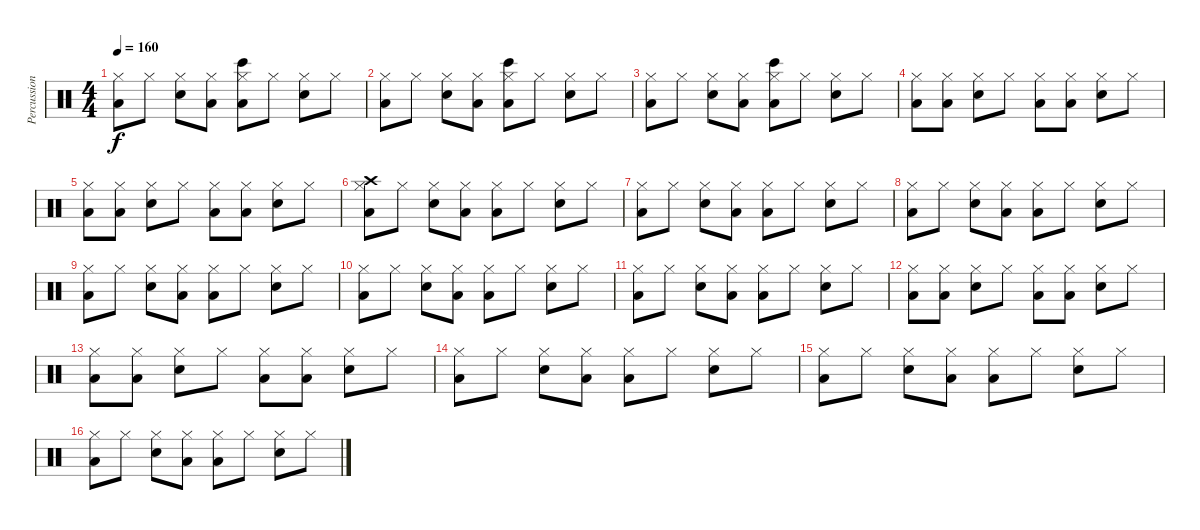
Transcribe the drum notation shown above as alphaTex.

\track ("Percussions" "Percussion") {instrument percussion}
\staff {score}
\articulation defaults
\ts (4 4)
\tempo 160
\clef neutral
\ks c
("Low Floor Tom (hit)" "Hi-Hat (closed)").8{dy f} "Hi-Hat (closed)".8 ("Electric Snare (hit)" "Hi-Hat (closed)").8 ("Low Floor Tom (hit)" "Hi-Hat (closed)").8 ("Low Floor Tom (hit)" "Bongo High (hit)" "Hi-Hat (closed)").8 "Hi-Hat (closed)".8 ("Electric Snare (hit)" "Hi-Hat (closed)").8 "Hi-Hat (closed)".8 |
("Low Floor Tom (hit)" "Hi-Hat (closed)").8 "Hi-Hat (closed)".8 ("Electric Snare (hit)" "Hi-Hat (closed)").8 ("Low Floor Tom (hit)" "Hi-Hat (closed)").8 ("Low Floor Tom (hit)" "Bongo High (hit)" "Hi-Hat (closed)").8 "Hi-Hat (closed)".8 ("Electric Snare (hit)" "Hi-Hat (closed)").8 "Hi-Hat (closed)".8 |
("Low Floor Tom (hit)" "Hi-Hat (closed)").8 "Hi-Hat (closed)".8 ("Electric Snare (hit)" "Hi-Hat (closed)").8 ("Low Floor Tom (hit)" "Hi-Hat (closed)").8 ("Low Floor Tom (hit)" "Bongo High (hit)" "Hi-Hat (closed)").8 "Hi-Hat (closed)".8 ("Electric Snare (hit)" "Hi-Hat (closed)").8 "Hi-Hat (closed)".8 |
("Low Floor Tom (hit)" "Hi-Hat (closed)").8 ("Low Floor Tom (hit)" "Hi-Hat (closed)").8 ("Electric Snare (hit)" "Hi-Hat (closed)").8 "Hi-Hat (closed)".8 ("Low Floor Tom (hit)" "Hi-Hat (closed)").8 ("Low Floor Tom (hit)" "Hi-Hat (closed)").8 ("Electric Snare (hit)" "Hi-Hat (closed)").8 "Hi-Hat (closed)".8 |
("Low Floor Tom (hit)" "Hi-Hat (closed)").8 ("Low Floor Tom (hit)" "Hi-Hat (closed)").8 ("Electric Snare (hit)" "Hi-Hat (closed)").8 "Hi-Hat (closed)".8 ("Low Floor Tom (hit)" "Hi-Hat (closed)").8 ("Low Floor Tom (hit)" "Hi-Hat (closed)").8 ("Electric Snare (hit)" "Hi-Hat (closed)").8 "Hi-Hat (closed)".8 |
("Low Floor Tom (hit)" "Hi-Hat (closed)" "Crash high (hit)").8 "Hi-Hat (closed)".8 ("Electric Snare (hit)" "Hi-Hat (closed)").8 ("Low Floor Tom (hit)" "Hi-Hat (closed)").8 ("Low Floor Tom (hit)" "Hi-Hat (closed)").8 "Hi-Hat (closed)".8 ("Electric Snare (hit)" "Hi-Hat (closed)").8 "Hi-Hat (closed)".8 |
("Low Floor Tom (hit)" "Hi-Hat (closed)").8 "Hi-Hat (closed)".8 ("Electric Snare (hit)" "Hi-Hat (closed)").8 ("Low Floor Tom (hit)" "Hi-Hat (closed)").8 ("Low Floor Tom (hit)" "Hi-Hat (closed)").8 "Hi-Hat (closed)".8 ("Electric Snare (hit)" "Hi-Hat (closed)").8 "Hi-Hat (closed)".8 |
("Low Floor Tom (hit)" "Hi-Hat (closed)").8 "Hi-Hat (closed)".8 ("Electric Snare (hit)" "Hi-Hat (closed)").8 ("Low Floor Tom (hit)" "Hi-Hat (closed)").8 ("Low Floor Tom (hit)" "Hi-Hat (closed)").8 "Hi-Hat (closed)".8 ("Electric Snare (hit)" "Hi-Hat (closed)").8 "Hi-Hat (closed)".8 |
("Low Floor Tom (hit)" "Hi-Hat (closed)").8 "Hi-Hat (closed)".8 ("Electric Snare (hit)" "Hi-Hat (closed)").8 ("Low Floor Tom (hit)" "Hi-Hat (closed)").8 ("Low Floor Tom (hit)" "Hi-Hat (closed)").8 "Hi-Hat (closed)".8 ("Electric Snare (hit)" "Hi-Hat (closed)").8 "Hi-Hat (closed)".8 |
("Low Floor Tom (hit)" "Hi-Hat (closed)").8 "Hi-Hat (closed)".8 ("Electric Snare (hit)" "Hi-Hat (closed)").8 ("Low Floor Tom (hit)" "Hi-Hat (closed)").8 ("Low Floor Tom (hit)" "Hi-Hat (closed)").8 "Hi-Hat (closed)".8 ("Electric Snare (hit)" "Hi-Hat (closed)").8 "Hi-Hat (closed)".8 |
("Low Floor Tom (hit)" "Hi-Hat (closed)").8 "Hi-Hat (closed)".8 ("Electric Snare (hit)" "Hi-Hat (closed)").8 ("Low Floor Tom (hit)" "Hi-Hat (closed)").8 ("Low Floor Tom (hit)" "Hi-Hat (closed)").8 "Hi-Hat (closed)".8 ("Electric Snare (hit)" "Hi-Hat (closed)").8 "Hi-Hat (closed)".8 |
("Low Floor Tom (hit)" "Hi-Hat (closed)").8 ("Low Floor Tom (hit)" "Hi-Hat (closed)").8 ("Electric Snare (hit)" "Hi-Hat (closed)").8 "Hi-Hat (closed)".8 ("Low Floor Tom (hit)" "Hi-Hat (closed)").8 ("Low Floor Tom (hit)" "Hi-Hat (closed)").8 ("Electric Snare (hit)" "Hi-Hat (closed)").8 "Hi-Hat (closed)".8 |
("Low Floor Tom (hit)" "Hi-Hat (closed)").8 ("Low Floor Tom (hit)" "Hi-Hat (closed)").8 ("Electric Snare (hit)" "Hi-Hat (closed)").8 "Hi-Hat (closed)".8 ("Low Floor Tom (hit)" "Hi-Hat (closed)").8 ("Low Floor Tom (hit)" "Hi-Hat (closed)").8 ("Electric Snare (hit)" "Hi-Hat (closed)").8 "Hi-Hat (closed)".8 |
("Low Floor Tom (hit)" "Hi-Hat (closed)").8 "Hi-Hat (closed)".8 ("Electric Snare (hit)" "Hi-Hat (closed)").8 ("Low Floor Tom (hit)" "Hi-Hat (closed)").8 ("Low Floor Tom (hit)" "Hi-Hat (closed)").8 "Hi-Hat (closed)".8 ("Electric Snare (hit)" "Hi-Hat (closed)").8 "Hi-Hat (closed)".8 |
("Low Floor Tom (hit)" "Hi-Hat (closed)").8 "Hi-Hat (closed)".8 ("Electric Snare (hit)" "Hi-Hat (closed)").8 ("Low Floor Tom (hit)" "Hi-Hat (closed)").8 ("Low Floor Tom (hit)" "Hi-Hat (closed)").8 "Hi-Hat (closed)".8 ("Electric Snare (hit)" "Hi-Hat (closed)").8 "Hi-Hat (closed)".8 |
("Low Floor Tom (hit)" "Hi-Hat (closed)").8 "Hi-Hat (closed)".8 ("Electric Snare (hit)" "Hi-Hat (closed)").8 ("Low Floor Tom (hit)" "Hi-Hat (closed)").8 ("Low Floor Tom (hit)" "Hi-Hat (closed)").8 "Hi-Hat (closed)".8 ("Electric Snare (hit)" "Hi-Hat (closed)").8 "Hi-Hat (closed)".8
